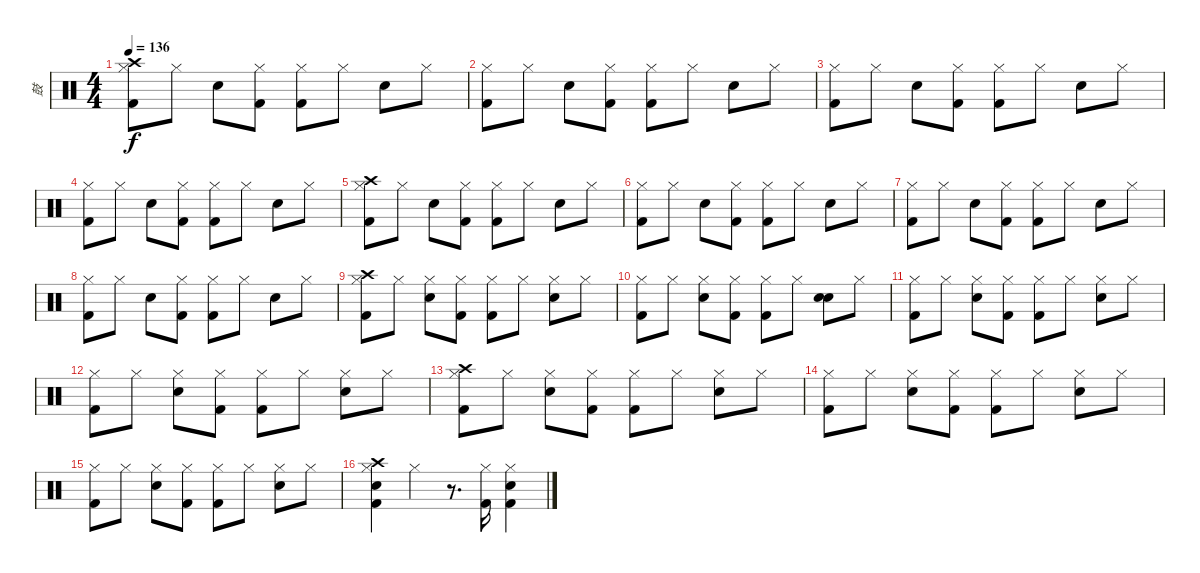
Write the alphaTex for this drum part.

\track ("鼓" "鼓") {instrument percussion}
\staff {score}
\articulation defaults
\ts (4 4)
\tempo 136
\clef neutral
\ks c
("Hi-Hat (closed)" "Crash high (hit)" "Kick (hit) 2").8{dy f} "Hi-Hat (closed)".8 "Electric Snare (hit)".8 ("Hi-Hat (closed)" "Kick (hit) 2").8 ("Hi-Hat (closed)" "Kick (hit) 2").8 "Hi-Hat (closed)".8 "Electric Snare (hit)".8 "Hi-Hat (closed)".8 |
("Hi-Hat (closed)" "Kick (hit) 2").8 "Hi-Hat (closed)".8 "Electric Snare (hit)".8 ("Hi-Hat (closed)" "Kick (hit) 2").8 ("Hi-Hat (closed)" "Kick (hit) 2").8 "Hi-Hat (closed)".8 "Electric Snare (hit)".8 "Hi-Hat (closed)".8 |
("Hi-Hat (closed)" "Kick (hit) 2").8 "Hi-Hat (closed)".8 "Electric Snare (hit)".8 ("Hi-Hat (closed)" "Kick (hit) 2").8 ("Hi-Hat (closed)" "Kick (hit) 2").8 "Hi-Hat (closed)".8 "Electric Snare (hit)".8 "Hi-Hat (closed)".8 |
("Hi-Hat (closed)" "Kick (hit) 2").8 "Hi-Hat (closed)".8 "Electric Snare (hit)".8 ("Hi-Hat (closed)" "Kick (hit) 2").8 ("Hi-Hat (closed)" "Kick (hit) 2").8 "Hi-Hat (closed)".8 "Electric Snare (hit)".8 "Hi-Hat (closed)".8 |
("Hi-Hat (closed)" "Crash high (hit)" "Kick (hit) 2").8 "Hi-Hat (closed)".8 "Electric Snare (hit)".8 ("Hi-Hat (closed)" "Kick (hit) 2").8 ("Hi-Hat (closed)" "Kick (hit) 2").8 "Hi-Hat (closed)".8 "Electric Snare (hit)".8 "Hi-Hat (closed)".8 |
("Hi-Hat (closed)" "Kick (hit) 2").8 "Hi-Hat (closed)".8 "Electric Snare (hit)".8 ("Hi-Hat (closed)" "Kick (hit) 2").8 ("Hi-Hat (closed)" "Kick (hit) 2").8 "Hi-Hat (closed)".8 "Electric Snare (hit)".8 "Hi-Hat (closed)".8 |
("Hi-Hat (closed)" "Kick (hit) 2").8 "Hi-Hat (closed)".8 "Electric Snare (hit)".8 ("Hi-Hat (closed)" "Kick (hit) 2").8 ("Hi-Hat (closed)" "Kick (hit) 2").8 "Hi-Hat (closed)".8 "Electric Snare (hit)".8 "Hi-Hat (closed)".8 |
("Hi-Hat (closed)" "Kick (hit) 2").8 "Hi-Hat (closed)".8 "Electric Snare (hit)".8 ("Hi-Hat (closed)" "Kick (hit) 2").8 ("Hi-Hat (closed)" "Kick (hit) 2").8 "Hi-Hat (closed)".8 "Electric Snare (hit)".8 "Hi-Hat (closed)".8 |
("Hi-Hat (closed)" "Crash high (hit)" "Kick (hit) 2").8 "Hi-Hat (closed)".8 ("Hi-Hat (closed)" "Electric Snare (hit)").8 ("Hi-Hat (closed)" "Kick (hit) 2").8 ("Hi-Hat (closed)" "Kick (hit) 2").8 "Hi-Hat (closed)".8 ("Hi-Hat (closed)" "Electric Snare (hit)").8 "Hi-Hat (closed)".8 |
("Hi-Hat (closed)" "Kick (hit) 2").8 "Hi-Hat (closed)".8 ("Hi-Hat (closed)" "Electric Snare (hit)").8 ("Hi-Hat (closed)" "Kick (hit) 2").8 ("Hi-Hat (closed)" "Kick (hit) 2").8 "Hi-Hat (closed)".8 ("Snare (hit)" "Electric Snare (hit)").8 "Hi-Hat (closed)".8 |
("Hi-Hat (closed)" "Kick (hit) 2").8 "Hi-Hat (closed)".8 ("Hi-Hat (closed)" "Electric Snare (hit)").8 ("Hi-Hat (closed)" "Kick (hit) 2").8 ("Hi-Hat (closed)" "Kick (hit) 2").8 "Hi-Hat (closed)".8 ("Hi-Hat (closed)" "Electric Snare (hit)").8 "Hi-Hat (closed)".8 |
("Hi-Hat (closed)" "Kick (hit) 2").8 "Hi-Hat (closed)".8 ("Hi-Hat (closed)" "Electric Snare (hit)").8 ("Hi-Hat (closed)" "Kick (hit) 2").8 ("Hi-Hat (closed)" "Kick (hit) 2").8 "Hi-Hat (closed)".8 ("Hi-Hat (closed)" "Electric Snare (hit)").8 "Hi-Hat (closed)".8 |
("Hi-Hat (closed)" "Crash high (hit)" "Kick (hit) 2").8 "Hi-Hat (closed)".8 ("Hi-Hat (closed)" "Electric Snare (hit)").8 ("Hi-Hat (closed)" "Kick (hit) 2").8 ("Hi-Hat (closed)" "Kick (hit) 2").8 "Hi-Hat (closed)".8 ("Hi-Hat (closed)" "Electric Snare (hit)").8 "Hi-Hat (closed)".8 |
("Hi-Hat (closed)" "Kick (hit) 2").8 "Hi-Hat (closed)".8 ("Hi-Hat (closed)" "Electric Snare (hit)").8 ("Hi-Hat (closed)" "Kick (hit) 2").8 ("Hi-Hat (closed)" "Kick (hit) 2").8 "Hi-Hat (closed)".8 ("Hi-Hat (closed)" "Electric Snare (hit)").8 "Hi-Hat (closed)".8 |
("Hi-Hat (closed)" "Kick (hit) 2").8 "Hi-Hat (closed)".8 ("Hi-Hat (closed)" "Electric Snare (hit)").8 ("Hi-Hat (closed)" "Kick (hit) 2").8 ("Hi-Hat (closed)" "Kick (hit) 2").8 "Hi-Hat (closed)".8 ("Hi-Hat (closed)" "Electric Snare (hit)").8 "Hi-Hat (closed)".8 |
("Hi-Hat (closed)" "Electric Snare (hit)" "Crash high (hit)" "Kick (hit) 2").4 "Hi-Hat (closed)".4 r.8{d} ("Hi-Hat (closed)" "Kick (hit) 2").16 ("Hi-Hat (closed)" "Electric Snare (hit)" "Kick (hit) 2").4
